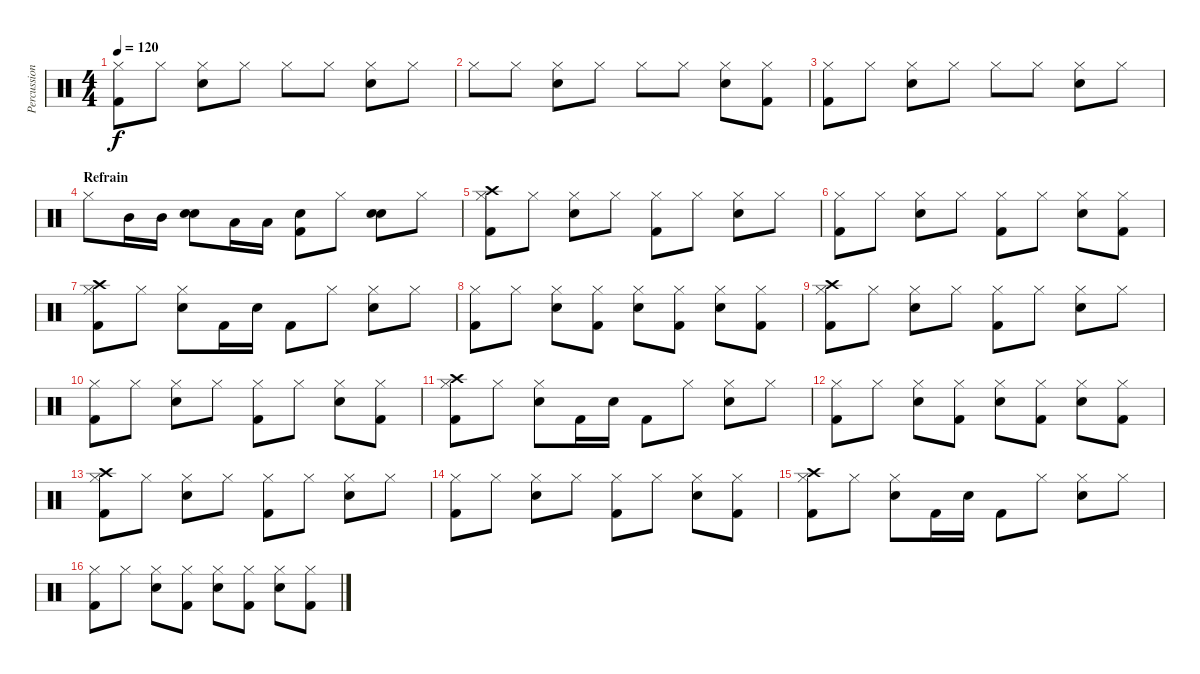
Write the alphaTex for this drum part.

\track ("Percussions" "Percussion") {instrument percussion}
\staff {score}
\articulation defaults
\ts (4 4)
\tempo 120
\clef neutral
\ks c
("Hi-Hat (closed)" "Kick (hit) 2").8{dy f} "Hi-Hat (closed)".8 ("Hi-Hat (closed)" "Electric Snare (hit)").8 "Hi-Hat (closed)".8 "Hi-Hat (closed)".8 "Hi-Hat (closed)".8 ("Hi-Hat (closed)" "Electric Snare (hit)").8 "Hi-Hat (closed)".8 |
"Hi-Hat (closed)".8 "Hi-Hat (closed)".8 ("Hi-Hat (closed)" "Electric Snare (hit)").8 "Hi-Hat (closed)".8 "Hi-Hat (closed)".8 "Hi-Hat (closed)".8 ("Hi-Hat (closed)" "Electric Snare (hit)").8 ("Hi-Hat (closed)" "Kick (hit) 2").8 |
("Hi-Hat (closed)" "Kick (hit) 2").8 "Hi-Hat (closed)".8 ("Hi-Hat (closed)" "Electric Snare (hit)").8 "Hi-Hat (closed)".8 "Hi-Hat (closed)".8 "Hi-Hat (closed)".8 ("Hi-Hat (closed)" "Electric Snare (hit)").8 "Hi-Hat (closed)".8 |
\section ("" "Refrain")
"Hi-Hat (closed)".8 "Mid Tom (hit)".16 "Mid Tom (hit)".16 ("Electric Snare (hit)" "Electric Snare (hit)").8 "Low Tom (hit)".16 "Low Tom (hit)".16 ("Snare (hit) 2" "Kick (hit) 2").8 "Hi-Hat (closed)".8 ("Electric Snare (hit)" "Electric Snare (hit)").8 "Hi-Hat (closed)".8 |
("Crash high (hit)" "Hi-Hat (closed)" "Kick (hit) 2").8 "Hi-Hat (closed)".8 ("Hi-Hat (closed)" "Electric Snare (hit)").8 "Hi-Hat (closed)".8 ("Hi-Hat (closed)" "Kick (hit) 2").8 "Hi-Hat (closed)".8 ("Hi-Hat (closed)" "Electric Snare (hit)").8 "Hi-Hat (closed)".8 |
("Hi-Hat (closed)" "Kick (hit) 2").8 "Hi-Hat (closed)".8 ("Hi-Hat (closed)" "Electric Snare (hit)").8 "Hi-Hat (closed)".8 ("Hi-Hat (closed)" "Kick (hit) 2").8 "Hi-Hat (closed)".8 ("Hi-Hat (closed)" "Electric Snare (hit)").8 ("Hi-Hat (closed)" "Kick (hit) 2").8 |
("Crash high (hit)" "Hi-Hat (closed)" "Kick (hit) 2").8 "Hi-Hat (closed)".8 ("Hi-Hat (closed)" "Electric Snare (hit)").8 "Kick (hit) 2".16 "Electric Snare (hit)".16 "Kick (hit) 2".8 "Hi-Hat (closed)".8 ("Hi-Hat (closed)" "Electric Snare (hit)").8 "Hi-Hat (closed)".8 |
("Hi-Hat (closed)" "Kick (hit) 2").8 "Hi-Hat (closed)".8 ("Hi-Hat (closed)" "Electric Snare (hit)").8 ("Hi-Hat (closed)" "Kick (hit) 2").8 ("Hi-Hat (closed)" "Electric Snare (hit)").8 ("Hi-Hat (closed)" "Kick (hit) 2").8 ("Hi-Hat (closed)" "Electric Snare (hit)").8 ("Hi-Hat (closed)" "Kick (hit) 2").8 |
("Crash high (hit)" "Hi-Hat (closed)" "Kick (hit) 2").8 "Hi-Hat (closed)".8 ("Hi-Hat (closed)" "Electric Snare (hit)").8 "Hi-Hat (closed)".8 ("Hi-Hat (closed)" "Kick (hit) 2").8 "Hi-Hat (closed)".8 ("Hi-Hat (closed)" "Electric Snare (hit)").8 "Hi-Hat (closed)".8 |
("Hi-Hat (closed)" "Kick (hit) 2").8 "Hi-Hat (closed)".8 ("Hi-Hat (closed)" "Electric Snare (hit)").8 "Hi-Hat (closed)".8 ("Hi-Hat (closed)" "Kick (hit) 2").8 "Hi-Hat (closed)".8 ("Hi-Hat (closed)" "Electric Snare (hit)").8 ("Hi-Hat (closed)" "Kick (hit) 2").8 |
("Crash high (hit)" "Hi-Hat (closed)" "Kick (hit) 2").8 "Hi-Hat (closed)".8 ("Hi-Hat (closed)" "Electric Snare (hit)").8 "Kick (hit) 2".16 "Electric Snare (hit)".16 "Kick (hit) 2".8 "Hi-Hat (closed)".8 ("Hi-Hat (closed)" "Electric Snare (hit)").8 "Hi-Hat (closed)".8 |
("Hi-Hat (closed)" "Kick (hit) 2").8 "Hi-Hat (closed)".8 ("Hi-Hat (closed)" "Electric Snare (hit)").8 ("Hi-Hat (closed)" "Kick (hit) 2").8 ("Hi-Hat (closed)" "Electric Snare (hit)").8 ("Hi-Hat (closed)" "Kick (hit) 2").8 ("Hi-Hat (closed)" "Electric Snare (hit)").8 ("Hi-Hat (closed)" "Kick (hit) 2").8 |
("Crash high (hit)" "Hi-Hat (closed)" "Kick (hit) 2").8 "Hi-Hat (closed)".8 ("Hi-Hat (closed)" "Electric Snare (hit)").8 "Hi-Hat (closed)".8 ("Hi-Hat (closed)" "Kick (hit) 2").8 "Hi-Hat (closed)".8 ("Hi-Hat (closed)" "Electric Snare (hit)").8 "Hi-Hat (closed)".8 |
("Hi-Hat (closed)" "Kick (hit) 2").8 "Hi-Hat (closed)".8 ("Hi-Hat (closed)" "Electric Snare (hit)").8 "Hi-Hat (closed)".8 ("Hi-Hat (closed)" "Kick (hit) 2").8 "Hi-Hat (closed)".8 ("Hi-Hat (closed)" "Electric Snare (hit)").8 ("Hi-Hat (closed)" "Kick (hit) 2").8 |
("Crash high (hit)" "Hi-Hat (closed)" "Kick (hit) 2").8 "Hi-Hat (closed)".8 ("Hi-Hat (closed)" "Electric Snare (hit)").8 "Kick (hit) 2".16 "Electric Snare (hit)".16 "Kick (hit) 2".8 "Hi-Hat (closed)".8 ("Hi-Hat (closed)" "Electric Snare (hit)").8 "Hi-Hat (closed)".8 |
("Hi-Hat (closed)" "Kick (hit) 2").8 "Hi-Hat (closed)".8 ("Hi-Hat (closed)" "Electric Snare (hit)").8 ("Hi-Hat (closed)" "Kick (hit) 2").8 ("Hi-Hat (closed)" "Electric Snare (hit)").8 ("Hi-Hat (closed)" "Kick (hit) 2").8 ("Hi-Hat (closed)" "Electric Snare (hit)").8 ("Hi-Hat (closed)" "Kick (hit) 2").8
